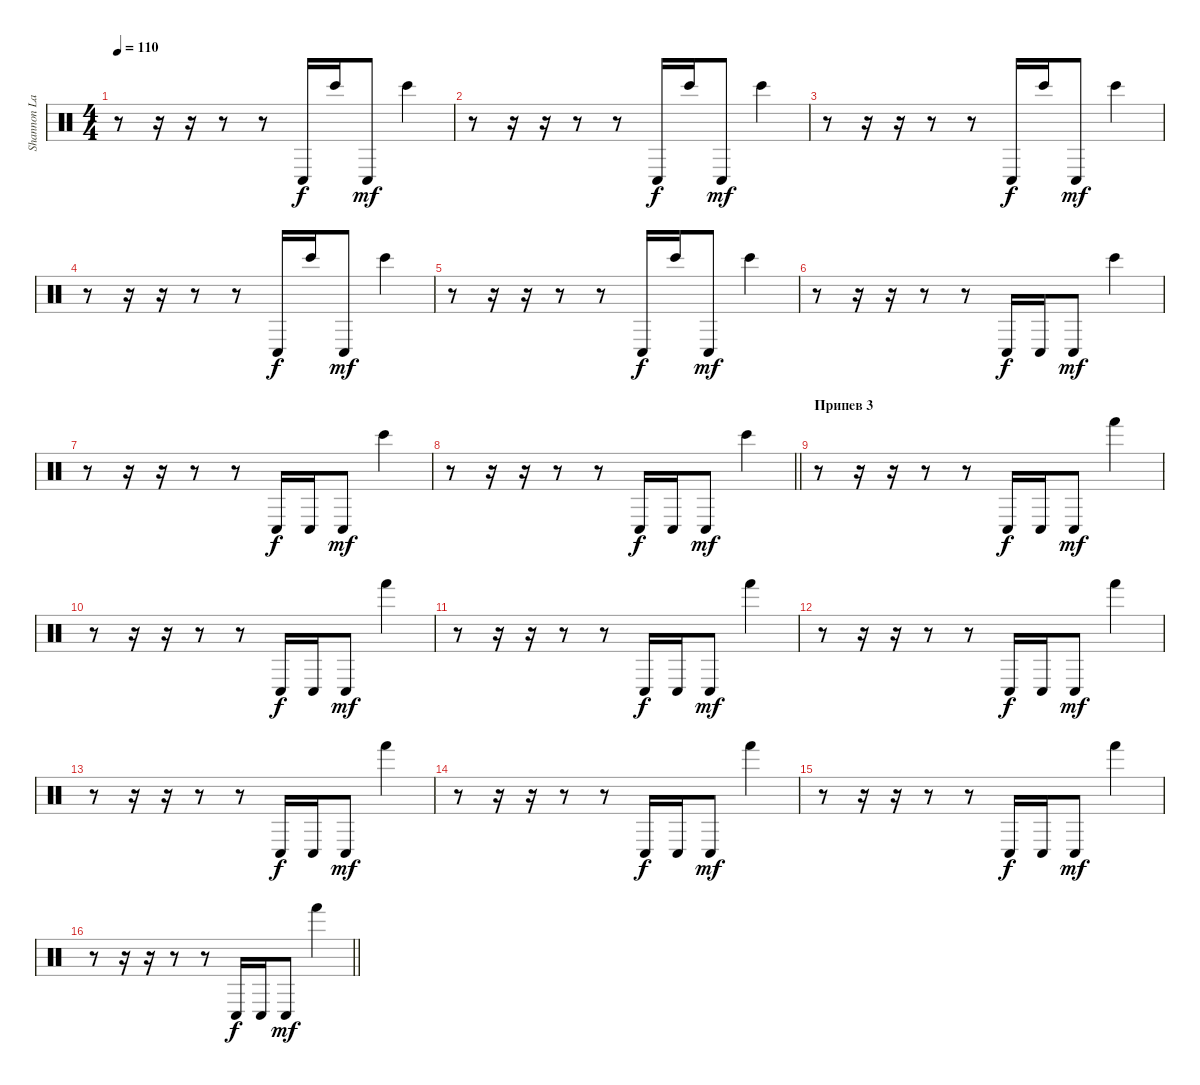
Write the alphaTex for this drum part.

\track ("Shannon Larkin [Percussion 2]" "Shannon La") {instrument percussion}
\staff {score}
\articulation defaults
\ts (4 4)
\tempo 110
\clef neutral
\ks c
r.8{dy mf} r.16 r.16 r.8 r.8 "Conga low (hit)".16{dy f} "Bongo High (hit)".16 "Conga low (hit)".8{dy mf} "Bongo High (hit)".4 |
r.8 r.16 r.16 r.8 r.8 "Conga low (hit)".16{dy f} "Bongo High (hit)".16 "Conga low (hit)".8{dy mf} "Bongo High (hit)".4 |
r.8 r.16 r.16 r.8 r.8 "Conga low (hit)".16{dy f} "Bongo High (hit)".16 "Conga low (hit)".8{dy mf} "Bongo High (hit)".4 |
r.8 r.16 r.16 r.8 r.8 "Conga low (hit)".16{dy f} "Bongo High (hit)".16 "Conga low (hit)".8{dy mf} "Bongo High (hit)".4 |
r.8 r.16 r.16 r.8 r.8 "Conga low (hit)".16{dy f} "Bongo High (hit)".16 "Conga low (hit)".8{dy mf} "Bongo High (hit)".4 |
r.8 r.16 r.16 r.8 r.8 "Conga low (hit)".16{dy f} "Conga low (hit)".16 "Conga low (hit)".8{dy mf} "Bongo High (hit)".4 |
r.8 r.16 r.16 r.8 r.8 "Conga low (hit)".16{dy f} "Conga low (hit)".16 "Conga low (hit)".8{dy mf} "Bongo High (hit)".4 |
\barLineRight lightlight
r.8 r.16 r.16 r.8 r.8 "Conga low (hit)".16{dy f} "Conga low (hit)".16 "Conga low (hit)".8{dy mf} "Bongo High (hit)".4 |
\section ("" "Припев 3")
r.8 r.16 r.16 r.8 r.8 "Conga low (hit)".16{dy f} "Conga low (hit)".16 "Conga low (hit)".8{dy mf} "Hand (hit)".4 |
r.8 r.16 r.16 r.8 r.8 "Conga low (hit)".16{dy f} "Conga low (hit)".16 "Conga low (hit)".8{dy mf} "Hand (hit)".4 |
r.8 r.16 r.16 r.8 r.8 "Conga low (hit)".16{dy f} "Conga low (hit)".16 "Conga low (hit)".8{dy mf} "Hand (hit)".4 |
r.8 r.16 r.16 r.8 r.8 "Conga low (hit)".16{dy f} "Conga low (hit)".16 "Conga low (hit)".8{dy mf} "Hand (hit)".4 |
r.8 r.16 r.16 r.8 r.8 "Conga low (hit)".16{dy f} "Conga low (hit)".16 "Conga low (hit)".8{dy mf} "Hand (hit)".4 |
r.8 r.16 r.16 r.8 r.8 "Conga low (hit)".16{dy f} "Conga low (hit)".16 "Conga low (hit)".8{dy mf} "Hand (hit)".4 |
r.8 r.16 r.16 r.8 r.8 "Conga low (hit)".16{dy f} "Conga low (hit)".16 "Conga low (hit)".8{dy mf} "Hand (hit)".4 |
\barLineRight lightlight
r.8 r.16 r.16 r.8 r.8 "Conga low (hit)".16{dy f} "Conga low (hit)".16 "Conga low (hit)".8{dy mf} "Hand (hit)".4
